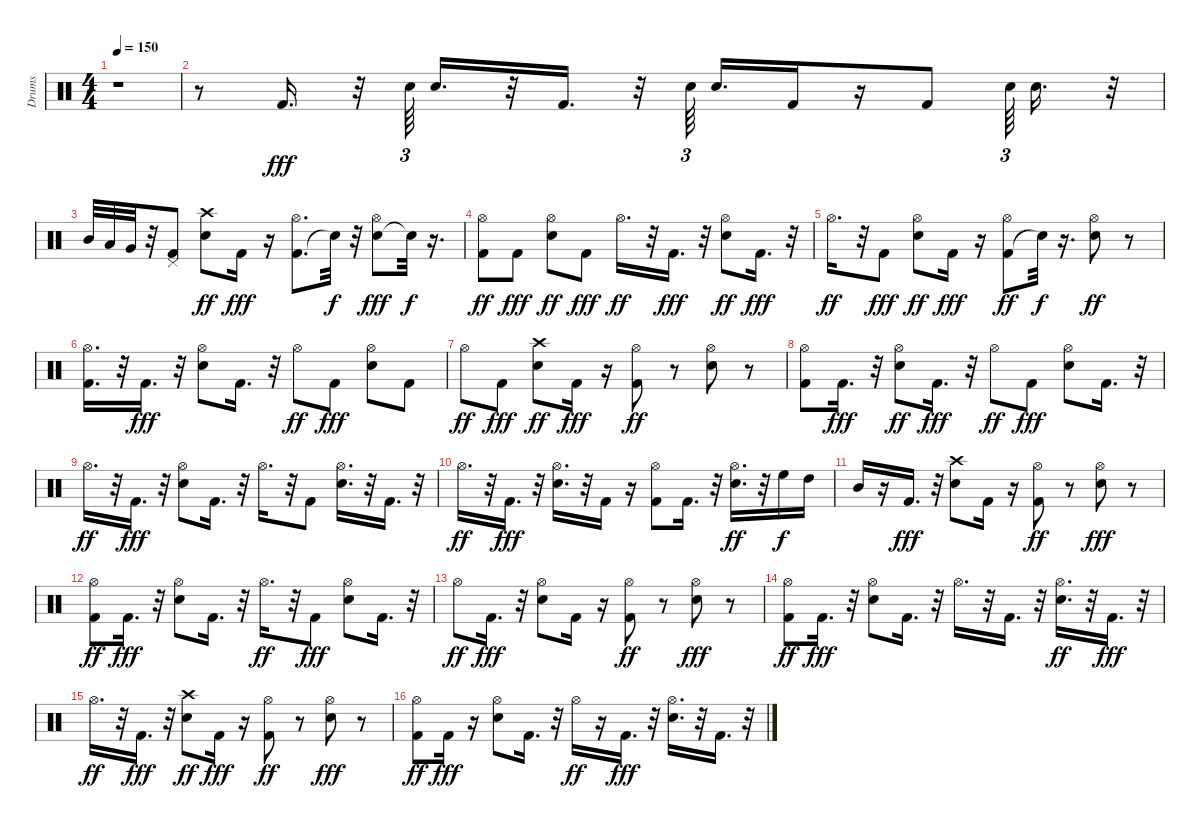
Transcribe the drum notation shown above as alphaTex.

\track ("Drums" "Drums") {instrument percussion}
\staff {score}
\articulation defaults
\ts (4 4)
\tempo 150
\clef neutral
\ks c
r.1{dy fff} |
r.8 "Kick (hit) 2".16{d} r.32 "Snare (hit) 2".64{tu (3 2)} "Electric Snare (hit)".16{d} r.32 "Kick (hit) 2".16{d} r.32 "Snare (hit) 2".64{tu (3 2)} "Electric Snare (hit)".16{d} "Kick (hit) 2".16 r.16 "Kick (hit) 2".8 "Snare (hit) 2".64{tu (3 2)} "Electric Snare (hit)".16{d} r.32 |
"Mid Tom (hit)".32 "Low Tom (hit)".32 "Very Low Tom (hit)".32 r.32 ("Kick (hit) 2" "Pedal Hi-Hat (hit)").8 ("Snare (hit) 2" "Crash high (hit)").8{dy ff} "Kick (hit) 2".16{dy fff} r.16 ("Kick (hit) 2" "Hi-Hat (open)").8{d} "Snare (hit)"{t}.32{dy f} r.32 ("Snare (hit) 2" "Hi-Hat (open)").8{dy fff} "Snare (hit)"{t}.32{dy f} r.16{d} |
("Kick (hit) 2" "Hi-Hat (open)").8{dy ff} "Kick (hit) 2".8{dy fff} ("Snare (hit) 2" "Hi-Hat (open)").8{dy ff} "Kick (hit) 2".8{dy fff} "Hi-Hat (open)".16{d dy ff} r.32 "Kick (hit) 2".16{d dy fff} r.32 ("Snare (hit) 2" "Hi-Hat (open)").8{dy ff} "Kick (hit) 2".16{d dy fff} r.32 |
"Hi-Hat (open)".16{d dy ff} r.32 "Kick (hit) 2".8{dy fff} ("Snare (hit) 2" "Hi-Hat (open)").8{dy ff} "Kick (hit) 2".16{dy fff} r.16 ("Kick (hit) 2" "Hi-Hat (open)").8{dy ff} "Snare (hit)"{t}.32{dy f} r.16{d} ("Snare (hit) 2" "Hi-Hat (open)").8{dy ff} r.8 |
("Kick (hit) 2" "Hi-Hat (open)").16{d} r.32 "Kick (hit) 2".16{d dy fff} r.32 ("Snare (hit) 2" "Hi-Hat (open)").8 "Kick (hit) 2".16{d} r.32 "Hi-Hat (open)".8{dy ff} "Kick (hit) 2".8{dy fff} ("Snare (hit) 2" "Hi-Hat (open)").8 "Kick (hit) 2".8 |
"Hi-Hat (open)".8{dy ff} "Kick (hit) 2".8{dy fff} ("Snare (hit) 2" "Crash high (hit)").8{dy ff} "Kick (hit) 2".16{dy fff} r.16 ("Kick (hit) 2" "Hi-Hat (open)").8{dy ff} r.8 ("Snare (hit) 2" "Hi-Hat (open)").8 r.8 |
("Kick (hit) 2" "Hi-Hat (open)").8 "Kick (hit) 2".16{d dy fff} r.32 ("Snare (hit) 2" "Hi-Hat (open)").8{dy ff} "Kick (hit) 2".16{d dy fff} r.32 "Hi-Hat (open)".8{dy ff} "Kick (hit) 2".8{dy fff} ("Snare (hit) 2" "Hi-Hat (open)").8 "Kick (hit) 2".16{d} r.32 |
"Hi-Hat (open)".16{d dy ff} r.32 "Kick (hit) 2".16{d dy fff} r.32 ("Snare (hit) 2" "Hi-Hat (open)").8 "Kick (hit) 2".16{d} r.32 "Hi-Hat (open)".16{d} r.32 "Kick (hit) 2".8 ("Snare (hit) 2" "Hi-Hat (open)").16{d} r.32 "Kick (hit) 2".16{d} r.32 |
"Hi-Hat (open)".16{d dy ff} r.32 "Kick (hit) 2".16{d dy fff} r.32 ("Snare (hit) 2" "Hi-Hat (open)").16{d} r.32 "Kick (hit) 2".16 r.16 ("Kick (hit) 2" "Hi-Hat (open)").8 "Kick (hit) 2".16{d} r.32 ("Snare (hit) 2" "Hi-Hat (open)").16{d dy ff} r.32 "High Floor Tom (hit)".16{dy f} "High Tom (hit)".16 |
"Mid Tom (hit)".16 r.16 "Kick (hit) 2".16{d dy fff} r.32 ("Snare (hit) 2" "Crash high (hit)").8 "Kick (hit) 2".16 r.16 ("Kick (hit) 2" "Hi-Hat (open)").8{dy ff} r.8 ("Snare (hit) 2" "Hi-Hat (open)").8{dy fff} r.8 |
("Kick (hit) 2" "Hi-Hat (open)").8{dy ff} "Kick (hit) 2".16{d dy fff} r.32 ("Snare (hit) 2" "Hi-Hat (open)").8 "Kick (hit) 2".16{d} r.32 "Hi-Hat (open)".16{d dy ff} r.32 "Kick (hit) 2".8{dy fff} ("Snare (hit) 2" "Hi-Hat (open)").8 "Kick (hit) 2".16{d} r.32 |
"Hi-Hat (open)".8{dy ff} "Kick (hit) 2".16{d dy fff} r.32 ("Snare (hit) 2" "Hi-Hat (open)").8 "Kick (hit) 2".16 r.16 ("Kick (hit) 2" "Hi-Hat (open)").8{dy ff} r.8 ("Snare (hit) 2" "Hi-Hat (open)").8{dy fff} r.8 |
("Kick (hit) 2" "Hi-Hat (open)").8{dy ff} "Kick (hit) 2".16{d dy fff} r.32 ("Snare (hit) 2" "Hi-Hat (open)").8 "Kick (hit) 2".16{d} r.32 "Hi-Hat (open)".16{d} r.32 "Kick (hit) 2".16{d} r.32 ("Snare (hit) 2" "Hi-Hat (open)").16{d dy ff} r.32 "Kick (hit) 2".16{d dy fff} r.32 |
"Hi-Hat (open)".16{d dy ff} r.32 "Kick (hit) 2".16{d dy fff} r.32 ("Snare (hit) 2" "Crash high (hit)").8{dy ff} "Kick (hit) 2".16{dy fff} r.16 ("Kick (hit) 2" "Hi-Hat (open)").8{dy ff} r.8 ("Snare (hit) 2" "Hi-Hat (open)").8{dy fff} r.8 |
("Kick (hit) 2" "Hi-Hat (open)").8{dy ff} "Kick (hit) 2".16{dy fff} r.16 ("Snare (hit) 2" "Hi-Hat (open)").8 "Kick (hit) 2".16{d} r.32 "Hi-Hat (open)".16{dy ff} r.16 "Kick (hit) 2".16{d dy fff} r.32 ("Snare (hit) 2" "Hi-Hat (open)").16{d} r.32 "Kick (hit) 2".16{d} r.32
